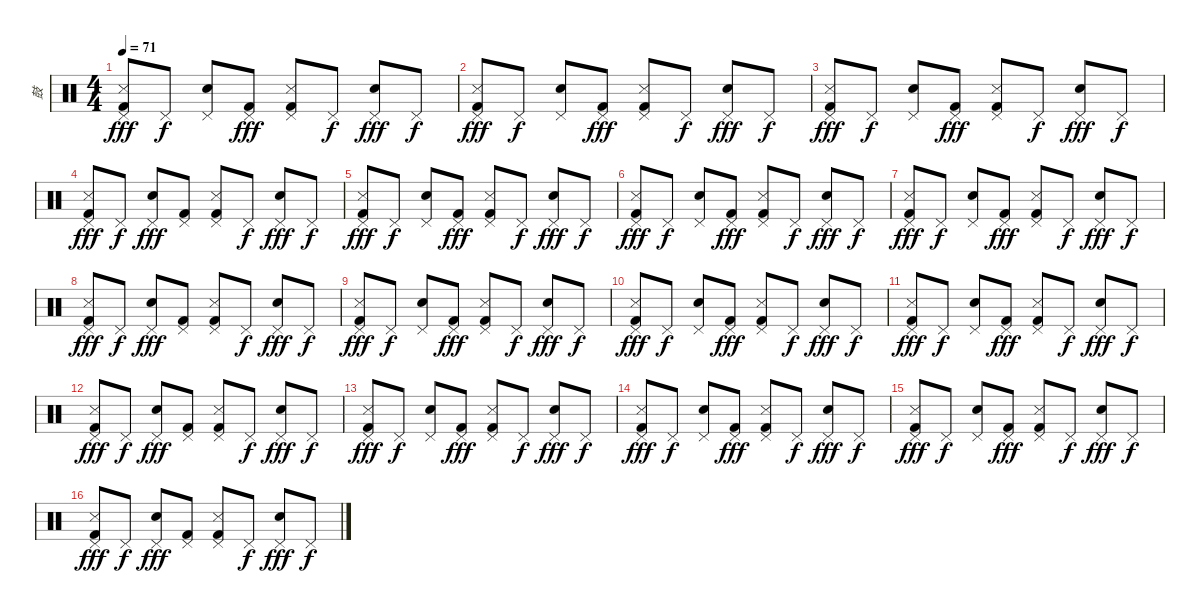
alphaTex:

\track ("鼓" "鼓") {instrument percussion}
\staff {score}
\articulation defaults
\ts (4 4)
\tempo 71
\clef neutral
\ks c
("Snare (side stick) 3" "Pedal Hi-Hat (hit)" "Kick (hit) 2").8{dy fff} "Pedal Hi-Hat (hit)".8{dy f} ("Hand Clap (hit)" "Pedal Hi-Hat (hit)").8 ("Pedal Hi-Hat (hit)" "Kick (hit) 2").8{dy fff} ("Snare (side stick) 3" "Pedal Hi-Hat (hit)" "Kick (hit) 2").8 "Pedal Hi-Hat (hit)".8{dy f} ("Hand Clap (hit)" "Pedal Hi-Hat (hit)").8{dy fff} "Pedal Hi-Hat (hit)".8{dy f} |
("Snare (side stick) 3" "Pedal Hi-Hat (hit)" "Kick (hit) 2").8{dy fff} "Pedal Hi-Hat (hit)".8{dy f} ("Hand Clap (hit)" "Pedal Hi-Hat (hit)").8 ("Pedal Hi-Hat (hit)" "Kick (hit) 2").8{dy fff} ("Snare (side stick) 3" "Pedal Hi-Hat (hit)" "Kick (hit) 2").8 "Pedal Hi-Hat (hit)".8{dy f} ("Hand Clap (hit)" "Pedal Hi-Hat (hit)").8{dy fff} "Pedal Hi-Hat (hit)".8{dy f} |
("Snare (side stick) 3" "Pedal Hi-Hat (hit)" "Kick (hit) 2").8{dy fff} "Pedal Hi-Hat (hit)".8{dy f} ("Hand Clap (hit)" "Pedal Hi-Hat (hit)").8 ("Pedal Hi-Hat (hit)" "Kick (hit) 2").8{dy fff} ("Snare (side stick) 3" "Pedal Hi-Hat (hit)" "Kick (hit) 2").8 "Pedal Hi-Hat (hit)".8{dy f} ("Hand Clap (hit)" "Pedal Hi-Hat (hit)").8{dy fff} "Pedal Hi-Hat (hit)".8{dy f} |
("Snare (side stick) 3" "Pedal Hi-Hat (hit)" "Kick (hit) 2").8{dy fff} "Pedal Hi-Hat (hit)".8{dy f} ("Hand Clap (hit)" "Pedal Hi-Hat (hit)").8{dy fff} ("Pedal Hi-Hat (hit)" "Kick (hit) 2").8 ("Snare (side stick) 3" "Pedal Hi-Hat (hit)" "Kick (hit) 2").8 "Pedal Hi-Hat (hit)".8{dy f} ("Hand Clap (hit)" "Pedal Hi-Hat (hit)").8{dy fff} "Pedal Hi-Hat (hit)".8{dy f} |
("Snare (side stick) 3" "Pedal Hi-Hat (hit)" "Kick (hit) 2").8{dy fff} "Pedal Hi-Hat (hit)".8{dy f} ("Hand Clap (hit)" "Pedal Hi-Hat (hit)").8 ("Pedal Hi-Hat (hit)" "Kick (hit) 2").8{dy fff} ("Snare (side stick) 3" "Pedal Hi-Hat (hit)" "Kick (hit) 2").8 "Pedal Hi-Hat (hit)".8{dy f} ("Hand Clap (hit)" "Pedal Hi-Hat (hit)").8{dy fff} "Pedal Hi-Hat (hit)".8{dy f} |
("Snare (side stick) 3" "Pedal Hi-Hat (hit)" "Kick (hit) 2").8{dy fff} "Pedal Hi-Hat (hit)".8{dy f} ("Hand Clap (hit)" "Pedal Hi-Hat (hit)").8 ("Pedal Hi-Hat (hit)" "Kick (hit) 2").8{dy fff} ("Snare (side stick) 3" "Pedal Hi-Hat (hit)" "Kick (hit) 2").8 "Pedal Hi-Hat (hit)".8{dy f} ("Hand Clap (hit)" "Pedal Hi-Hat (hit)").8{dy fff} "Pedal Hi-Hat (hit)".8{dy f} |
("Snare (side stick) 3" "Pedal Hi-Hat (hit)" "Kick (hit) 2").8{dy fff} "Pedal Hi-Hat (hit)".8{dy f} ("Hand Clap (hit)" "Pedal Hi-Hat (hit)").8 ("Pedal Hi-Hat (hit)" "Kick (hit) 2").8{dy fff} ("Snare (side stick) 3" "Pedal Hi-Hat (hit)" "Kick (hit) 2").8 "Pedal Hi-Hat (hit)".8{dy f} ("Hand Clap (hit)" "Pedal Hi-Hat (hit)").8{dy fff} "Pedal Hi-Hat (hit)".8{dy f} |
("Snare (side stick) 3" "Pedal Hi-Hat (hit)" "Kick (hit) 2").8{dy fff} "Pedal Hi-Hat (hit)".8{dy f} ("Hand Clap (hit)" "Pedal Hi-Hat (hit)").8{dy fff} ("Pedal Hi-Hat (hit)" "Kick (hit) 2").8 ("Snare (side stick) 3" "Pedal Hi-Hat (hit)" "Kick (hit) 2").8 "Pedal Hi-Hat (hit)".8{dy f} ("Hand Clap (hit)" "Pedal Hi-Hat (hit)").8{dy fff} "Pedal Hi-Hat (hit)".8{dy f} |
("Snare (side stick) 3" "Pedal Hi-Hat (hit)" "Kick (hit) 2").8{dy fff} "Pedal Hi-Hat (hit)".8{dy f} ("Hand Clap (hit)" "Pedal Hi-Hat (hit)").8 ("Pedal Hi-Hat (hit)" "Kick (hit) 2").8{dy fff} ("Snare (side stick) 3" "Pedal Hi-Hat (hit)" "Kick (hit) 2").8 "Pedal Hi-Hat (hit)".8{dy f} ("Hand Clap (hit)" "Pedal Hi-Hat (hit)").8{dy fff} "Pedal Hi-Hat (hit)".8{dy f} |
("Snare (side stick) 3" "Pedal Hi-Hat (hit)" "Kick (hit) 2").8{dy fff} "Pedal Hi-Hat (hit)".8{dy f} ("Hand Clap (hit)" "Pedal Hi-Hat (hit)").8 ("Pedal Hi-Hat (hit)" "Kick (hit) 2").8{dy fff} ("Snare (side stick) 3" "Pedal Hi-Hat (hit)" "Kick (hit) 2").8 "Pedal Hi-Hat (hit)".8{dy f} ("Hand Clap (hit)" "Pedal Hi-Hat (hit)").8{dy fff} "Pedal Hi-Hat (hit)".8{dy f} |
("Snare (side stick) 3" "Pedal Hi-Hat (hit)" "Kick (hit) 2").8{dy fff} "Pedal Hi-Hat (hit)".8{dy f} ("Hand Clap (hit)" "Pedal Hi-Hat (hit)").8 ("Pedal Hi-Hat (hit)" "Kick (hit) 2").8{dy fff} ("Snare (side stick) 3" "Pedal Hi-Hat (hit)" "Kick (hit) 2").8 "Pedal Hi-Hat (hit)".8{dy f} ("Hand Clap (hit)" "Pedal Hi-Hat (hit)").8{dy fff} "Pedal Hi-Hat (hit)".8{dy f} |
("Snare (side stick) 3" "Pedal Hi-Hat (hit)" "Kick (hit) 2").8{dy fff} "Pedal Hi-Hat (hit)".8{dy f} ("Hand Clap (hit)" "Pedal Hi-Hat (hit)").8{dy fff} ("Pedal Hi-Hat (hit)" "Kick (hit) 2").8 ("Snare (side stick) 3" "Pedal Hi-Hat (hit)" "Kick (hit) 2").8 "Pedal Hi-Hat (hit)".8{dy f} ("Hand Clap (hit)" "Pedal Hi-Hat (hit)").8{dy fff} "Pedal Hi-Hat (hit)".8{dy f} |
("Snare (side stick) 3" "Pedal Hi-Hat (hit)" "Kick (hit) 2").8{dy fff} "Pedal Hi-Hat (hit)".8{dy f} ("Hand Clap (hit)" "Pedal Hi-Hat (hit)").8 ("Pedal Hi-Hat (hit)" "Kick (hit) 2").8{dy fff} ("Snare (side stick) 3" "Pedal Hi-Hat (hit)" "Kick (hit) 2").8 "Pedal Hi-Hat (hit)".8{dy f} ("Hand Clap (hit)" "Pedal Hi-Hat (hit)").8{dy fff} "Pedal Hi-Hat (hit)".8{dy f} |
("Snare (side stick) 3" "Pedal Hi-Hat (hit)" "Kick (hit) 2").8{dy fff} "Pedal Hi-Hat (hit)".8{dy f} ("Hand Clap (hit)" "Pedal Hi-Hat (hit)").8 ("Pedal Hi-Hat (hit)" "Kick (hit) 2").8{dy fff} ("Snare (side stick) 3" "Pedal Hi-Hat (hit)" "Kick (hit) 2").8 "Pedal Hi-Hat (hit)".8{dy f} ("Hand Clap (hit)" "Pedal Hi-Hat (hit)").8{dy fff} "Pedal Hi-Hat (hit)".8{dy f} |
("Snare (side stick) 3" "Pedal Hi-Hat (hit)" "Kick (hit) 2").8{dy fff} "Pedal Hi-Hat (hit)".8{dy f} ("Hand Clap (hit)" "Pedal Hi-Hat (hit)").8 ("Pedal Hi-Hat (hit)" "Kick (hit) 2").8{dy fff} ("Snare (side stick) 3" "Pedal Hi-Hat (hit)" "Kick (hit) 2").8 "Pedal Hi-Hat (hit)".8{dy f} ("Hand Clap (hit)" "Pedal Hi-Hat (hit)").8{dy fff} "Pedal Hi-Hat (hit)".8{dy f} |
("Snare (side stick) 3" "Pedal Hi-Hat (hit)" "Kick (hit) 2").8{dy fff} "Pedal Hi-Hat (hit)".8{dy f} ("Hand Clap (hit)" "Pedal Hi-Hat (hit)").8{dy fff} ("Pedal Hi-Hat (hit)" "Kick (hit) 2").8 ("Snare (side stick) 3" "Pedal Hi-Hat (hit)" "Kick (hit) 2").8 "Pedal Hi-Hat (hit)".8{dy f} ("Hand Clap (hit)" "Pedal Hi-Hat (hit)").8{dy fff} "Pedal Hi-Hat (hit)".8{dy f}
